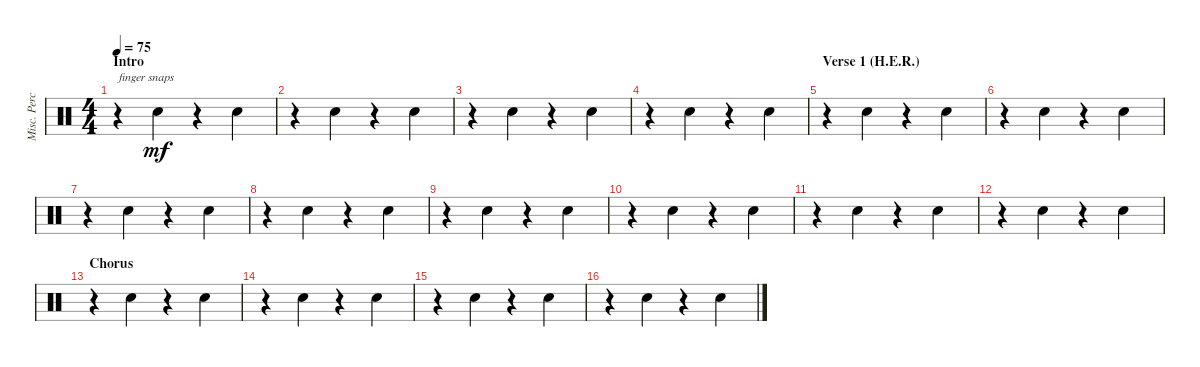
\track ("Misc. Percussion" "Misc. Perc") {instrument percussion}
\staff {score}
\articulation defaults
\ts (4 4)
\section ("" "Intro")
\tempo 75
\clef neutral
\ks c
r.4{txt "finger snaps" dy mf} "Hand Clap (hit)".4 r.4 "Hand Clap (hit)".4 |
r.4 "Hand Clap (hit)".4 r.4 "Hand Clap (hit)".4 |
r.4 "Hand Clap (hit)".4 r.4 "Hand Clap (hit)".4 |
r.4 "Hand Clap (hit)".4 r.4 "Hand Clap (hit)".4 |
\section ("" "Verse 1 (H.E.R.)")
r.4 "Hand Clap (hit)".4 r.4 "Hand Clap (hit)".4 |
r.4 "Hand Clap (hit)".4 r.4 "Hand Clap (hit)".4 |
r.4 "Hand Clap (hit)".4 r.4 "Hand Clap (hit)".4 |
r.4 "Hand Clap (hit)".4 r.4 "Hand Clap (hit)".4 |
r.4 "Hand Clap (hit)".4 r.4 "Hand Clap (hit)".4 |
r.4 "Hand Clap (hit)".4 r.4 "Hand Clap (hit)".4 |
r.4 "Hand Clap (hit)".4 r.4 "Hand Clap (hit)".4 |
r.4 "Hand Clap (hit)".4 r.4 "Hand Clap (hit)".4 |
\section ("" "Chorus")
r.4 "Hand Clap (hit)".4 r.4 "Hand Clap (hit)".4 |
r.4 "Hand Clap (hit)".4 r.4 "Hand Clap (hit)".4 |
r.4 "Hand Clap (hit)".4 r.4 "Hand Clap (hit)".4 |
r.4 "Hand Clap (hit)".4 r.4 "Hand Clap (hit)".4
